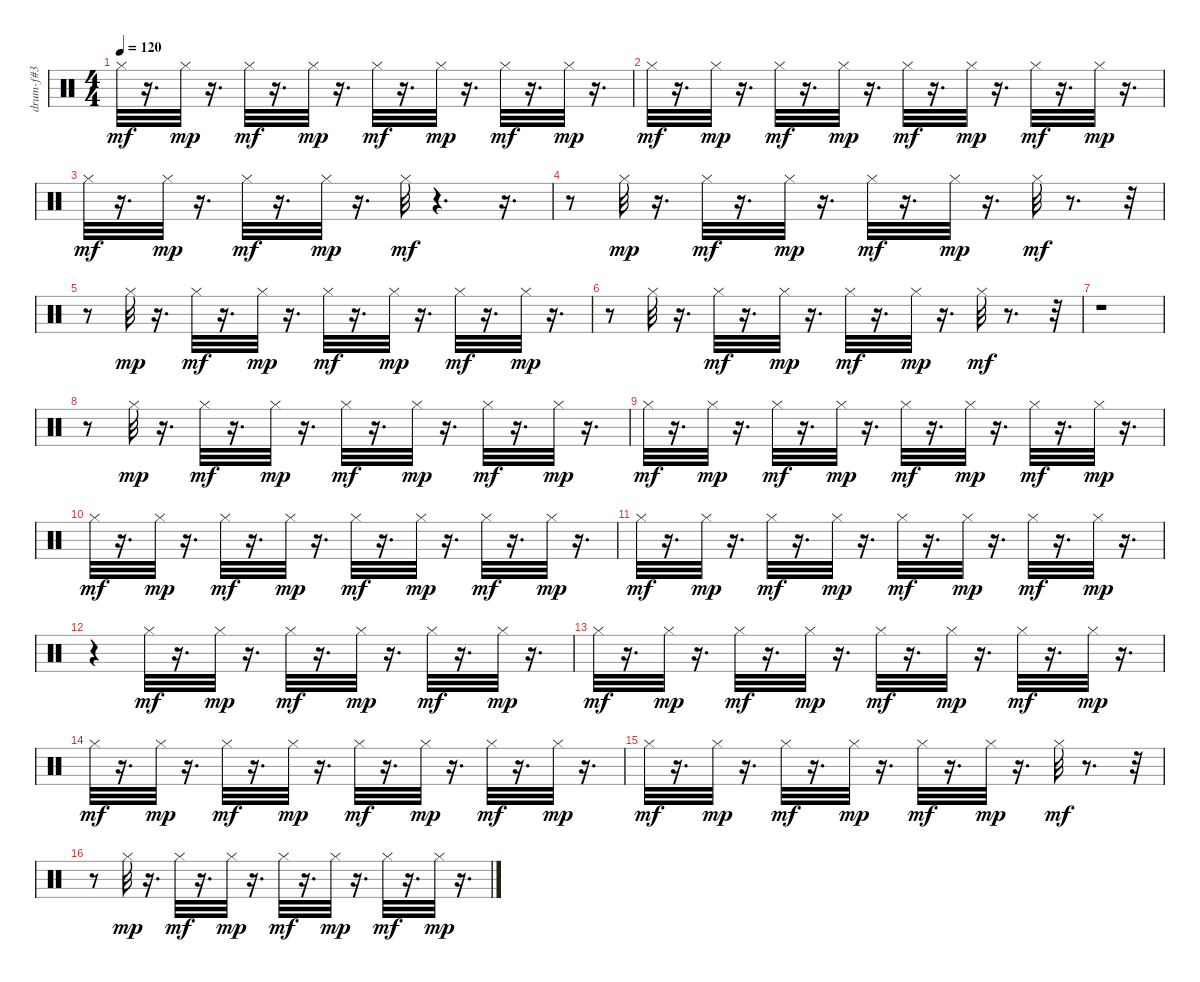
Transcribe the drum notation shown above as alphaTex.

\track ("drum-f#3" "drum-f#3") {instrument percussion}
\staff {score}
\articulation defaults
\ts (4 4)
\tempo 120
\clef neutral
\ks c "Hi-Hat (closed)".32{dy mf}
r.16{d} "Hi-Hat (closed)".32{dy mp} r.16{d} "Hi-Hat (closed)".32{dy mf} r.16{d} "Hi-Hat (closed)".32{dy mp} r.16{d} "Hi-Hat (closed)".32{dy mf} r.16{d} "Hi-Hat (closed)".32{dy mp} r.16{d} "Hi-Hat (closed)".32{dy mf} r.16{d} "Hi-Hat (closed)".32{dy mp} r.16{d} |
"Hi-Hat (closed)".32{dy mf} r.16{d} "Hi-Hat (closed)".32{dy mp} r.16{d} "Hi-Hat (closed)".32{dy mf} r.16{d} "Hi-Hat (closed)".32{dy mp} r.16{d} "Hi-Hat (closed)".32{dy mf} r.16{d} "Hi-Hat (closed)".32{dy mp} r.16{d} "Hi-Hat (closed)".32{dy mf} r.16{d} "Hi-Hat (closed)".32{dy mp} r.16{d} |
"Hi-Hat (closed)".32{dy mf} r.16{d} "Hi-Hat (closed)".32{dy mp} r.16{d} "Hi-Hat (closed)".32{dy mf} r.16{d} "Hi-Hat (closed)".32{dy mp} r.16{d} "Hi-Hat (closed)".32{dy mf} r.4{d} r.16{d} |
r.8 "Hi-Hat (closed)".32{dy mp} r.16{d} "Hi-Hat (closed)".32{dy mf} r.16{d} "Hi-Hat (closed)".32{dy mp} r.16{d} "Hi-Hat (closed)".32{dy mf} r.16{d} "Hi-Hat (closed)".32{dy mp} r.16{d} "Hi-Hat (closed)".32{dy mf} r.8{d} r.32 |
r.8 "Hi-Hat (closed)".32{dy mp} r.16{d} "Hi-Hat (closed)".32{dy mf} r.16{d} "Hi-Hat (closed)".32{dy mp} r.16{d} "Hi-Hat (closed)".32{dy mf} r.16{d} "Hi-Hat (closed)".32{dy mp} r.16{d} "Hi-Hat (closed)".32{dy mf} r.16{d} "Hi-Hat (closed)".32{dy mp} r.16{d} |
r.8 "Hi-Hat (closed)".32 r.16{d} "Hi-Hat (closed)".32{dy mf} r.16{d} "Hi-Hat (closed)".32{dy mp} r.16{d} "Hi-Hat (closed)".32{dy mf} r.16{d} "Hi-Hat (closed)".32{dy mp} r.16{d} "Hi-Hat (closed)".32{dy mf} r.8{d} r.32 |
r.1 |
r.8 "Hi-Hat (closed)".32{dy mp} r.16{d} "Hi-Hat (closed)".32{dy mf} r.16{d} "Hi-Hat (closed)".32{dy mp} r.16{d} "Hi-Hat (closed)".32{dy mf} r.16{d} "Hi-Hat (closed)".32{dy mp} r.16{d} "Hi-Hat (closed)".32{dy mf} r.16{d} "Hi-Hat (closed)".32{dy mp} r.16{d} |
"Hi-Hat (closed)".32{dy mf} r.16{d} "Hi-Hat (closed)".32{dy mp} r.16{d} "Hi-Hat (closed)".32{dy mf} r.16{d} "Hi-Hat (closed)".32{dy mp} r.16{d} "Hi-Hat (closed)".32{dy mf} r.16{d} "Hi-Hat (closed)".32{dy mp} r.16{d} "Hi-Hat (closed)".32{dy mf} r.16{d} "Hi-Hat (closed)".32{dy mp} r.16{d} |
"Hi-Hat (closed)".32{dy mf} r.16{d} "Hi-Hat (closed)".32{dy mp} r.16{d} "Hi-Hat (closed)".32{dy mf} r.16{d} "Hi-Hat (closed)".32{dy mp} r.16{d} "Hi-Hat (closed)".32{dy mf} r.16{d} "Hi-Hat (closed)".32{dy mp} r.16{d} "Hi-Hat (closed)".32{dy mf} r.16{d} "Hi-Hat (closed)".32{dy mp} r.16{d} |
"Hi-Hat (closed)".32{dy mf} r.16{d} "Hi-Hat (closed)".32{dy mp} r.16{d} "Hi-Hat (closed)".32{dy mf} r.16{d} "Hi-Hat (closed)".32{dy mp} r.16{d} "Hi-Hat (closed)".32{dy mf} r.16{d} "Hi-Hat (closed)".32{dy mp} r.16{d} "Hi-Hat (closed)".32{dy mf} r.16{d} "Hi-Hat (closed)".32{dy mp} r.16{d} |
r.4 "Hi-Hat (closed)".32{dy mf} r.16{d} "Hi-Hat (closed)".32{dy mp} r.16{d} "Hi-Hat (closed)".32{dy mf} r.16{d} "Hi-Hat (closed)".32{dy mp} r.16{d} "Hi-Hat (closed)".32{dy mf} r.16{d} "Hi-Hat (closed)".32{dy mp} r.16{d} |
"Hi-Hat (closed)".32{dy mf} r.16{d} "Hi-Hat (closed)".32{dy mp} r.16{d} "Hi-Hat (closed)".32{dy mf} r.16{d} "Hi-Hat (closed)".32{dy mp} r.16{d} "Hi-Hat (closed)".32{dy mf} r.16{d} "Hi-Hat (closed)".32{dy mp} r.16{d} "Hi-Hat (closed)".32{dy mf} r.16{d} "Hi-Hat (closed)".32{dy mp} r.16{d} |
"Hi-Hat (closed)".32{dy mf} r.16{d} "Hi-Hat (closed)".32{dy mp} r.16{d} "Hi-Hat (closed)".32{dy mf} r.16{d} "Hi-Hat (closed)".32{dy mp} r.16{d} "Hi-Hat (closed)".32{dy mf} r.16{d} "Hi-Hat (closed)".32{dy mp} r.16{d} "Hi-Hat (closed)".32{dy mf} r.16{d} "Hi-Hat (closed)".32{dy mp} r.16{d} |
"Hi-Hat (closed)".32{dy mf} r.16{d} "Hi-Hat (closed)".32{dy mp} r.16{d} "Hi-Hat (closed)".32{dy mf} r.16{d} "Hi-Hat (closed)".32{dy mp} r.16{d} "Hi-Hat (closed)".32{dy mf} r.16{d} "Hi-Hat (closed)".32{dy mp} r.16{d} "Hi-Hat (closed)".32{dy mf} r.8{d} r.32 |
r.8 "Hi-Hat (closed)".32{dy mp} r.16{d} "Hi-Hat (closed)".32{dy mf} r.16{d} "Hi-Hat (closed)".32{dy mp} r.16{d} "Hi-Hat (closed)".32{dy mf} r.16{d} "Hi-Hat (closed)".32{dy mp} r.16{d} "Hi-Hat (closed)".32{dy mf} r.16{d} "Hi-Hat (closed)".32{dy mp} r.16{d}
